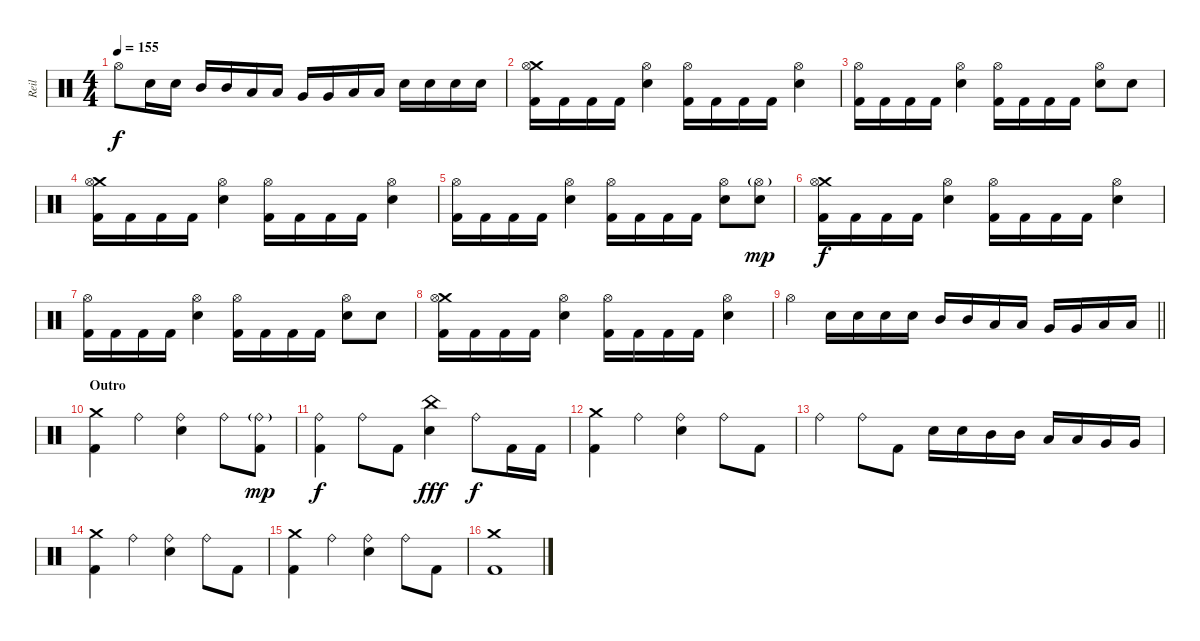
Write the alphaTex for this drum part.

\track ("Reil" "Reil") {instrument percussion}
\staff {score}
\articulation defaults
\ts (4 4)
\tempo 155
\clef neutral
\ks c "Hi-Hat (open)".8{dy f} "Electric Snare (hit)".16 "Electric Snare (hit)".16 "Mid Tom (hit)".16 "Mid Tom (hit)".16 "Low Tom (hit)".16 "Low Tom (hit)".16 "Very Low Tom (hit)".16 "Very Low Tom (hit)".16 "Low Floor Tom (hit)".16 "Low Floor Tom (hit)".16 "Electric Snare (hit)".16 "Electric Snare (hit)".16 "Electric Snare (hit)".16 "Electric Snare (hit)".16
|
("Crash medium (hit)" "Hi-Hat (open)" "Kick (hit) 2").16 "Kick (hit) 2".16 "Kick (hit) 2".16 "Kick (hit) 2".16 ("Hi-Hat (open)" "Electric Snare (hit)").4 ("Hi-Hat (open)" "Kick (hit) 2").16 "Kick (hit) 2".16 "Kick (hit) 2".16 "Kick (hit) 2".16 ("Hi-Hat (open)" "Electric Snare (hit)").4 |
("Hi-Hat (open)" "Kick (hit) 2").16 "Kick (hit) 2".16 "Kick (hit) 2".16 "Kick (hit) 2".16 ("Hi-Hat (open)" "Electric Snare (hit)").4 ("Hi-Hat (open)" "Kick (hit) 2").16 "Kick (hit) 2".16 "Kick (hit) 2".16 "Kick (hit) 2".16 ("Hi-Hat (open)" "Electric Snare (hit)").8 "Electric Snare (hit)".8 |
("Crash medium (hit)" "Hi-Hat (open)" "Kick (hit) 2").16 "Kick (hit) 2".16 "Kick (hit) 2".16 "Kick (hit) 2".16 ("Hi-Hat (open)" "Electric Snare (hit)").4 ("Hi-Hat (open)" "Kick (hit) 2").16 "Kick (hit) 2".16 "Kick (hit) 2".16 "Kick (hit) 2".16 ("Hi-Hat (open)" "Electric Snare (hit)").4 |
("Hi-Hat (open)" "Kick (hit) 2").16 "Kick (hit) 2".16 "Kick (hit) 2".16 "Kick (hit) 2".16 ("Hi-Hat (open)" "Electric Snare (hit)").4 ("Hi-Hat (open)" "Kick (hit) 2").16 "Kick (hit) 2".16 "Kick (hit) 2".16 "Kick (hit) 2".16 ("Hi-Hat (open)" "Electric Snare (hit)").8 ("Hi-Hat (open)"{g} "Electric Snare (hit)").8{dy mp} |
("Crash medium (hit)" "Hi-Hat (open)" "Kick (hit) 2").16{dy f} "Kick (hit) 2".16 "Kick (hit) 2".16 "Kick (hit) 2".16 ("Hi-Hat (open)" "Electric Snare (hit)").4 ("Hi-Hat (open)" "Kick (hit) 2").16 "Kick (hit) 2".16 "Kick (hit) 2".16 "Kick (hit) 2".16 ("Hi-Hat (open)" "Electric Snare (hit)").4 |
("Hi-Hat (open)" "Kick (hit) 2").16 "Kick (hit) 2".16 "Kick (hit) 2".16 "Kick (hit) 2".16 ("Hi-Hat (open)" "Electric Snare (hit)").4 ("Hi-Hat (open)" "Kick (hit) 2").16 "Kick (hit) 2".16 "Kick (hit) 2".16 "Kick (hit) 2".16 ("Hi-Hat (open)" "Electric Snare (hit)").8 "Electric Snare (hit)".8 |
("Crash medium (hit)" "Hi-Hat (open)" "Kick (hit) 2").16 "Kick (hit) 2".16 "Kick (hit) 2".16 "Kick (hit) 2".16 ("Hi-Hat (open)" "Electric Snare (hit)").4 ("Hi-Hat (open)" "Kick (hit) 2").16 "Kick (hit) 2".16 "Kick (hit) 2".16 "Kick (hit) 2".16 ("Hi-Hat (open)" "Electric Snare (hit)").4 |
\barLineRight lightlight "Hi-Hat (open)".4 "Electric Snare (hit)".16 "Electric Snare (hit)".16 "Electric Snare (hit)".16 "Electric Snare (hit)".16 "Mid Tom (hit)".16 "Mid Tom (hit)".16 "Low Tom (hit)".16 "Low Tom (hit)".16 "Very Low Tom (hit)".16 "Very Low Tom (hit)".16 "Low Floor Tom (hit)".16 "Low Floor Tom (hit)".16
|
\section ("" "Outro")
("Crash medium (hit)" "Kick (hit) 2").4 "Ride (bell)".4 ("Ride (bell)" "Electric Snare (hit)").4 "Ride (bell)".8 ("Ride (bell)"{g} "Kick (hit) 2").8{dy mp} |
("Ride (bell)" "Kick (hit) 2").4{dy f} "Ride (bell)".8 "Kick (hit) 2".8 ("China (hit)" "Electric Snare (hit)").4{dy fff} "Ride (bell)".8{dy f} "Kick (hit) 2".16 "Kick (hit) 2".16 |
("Crash medium (hit)" "Kick (hit) 2").4 "Ride (bell)".4 ("Ride (bell)" "Electric Snare (hit)").4 "Ride (bell)".8 "Kick (hit) 2".8 |
"Ride (bell)".4 "Ride (bell)".8 "Kick (hit) 2".8 "Electric Snare (hit)".16 "Electric Snare (hit)".16 "Mid Tom (hit)".16 "Mid Tom (hit)".16 "Low Tom (hit)".16 "Low Tom (hit)".16 "Very Low Tom (hit)".16 "Very Low Tom (hit)".16 |
("Crash medium (hit)" "Kick (hit) 2").4 "Ride (bell)".4 ("Ride (bell)" "Electric Snare (hit)").4 "Ride (bell)".8 "Kick (hit) 2".8 |
("Crash medium (hit)" "Kick (hit) 2").4 "Ride (bell)".4 ("Ride (bell)" "Electric Snare (hit)").4 "Ride (bell)".8 "Kick (hit) 2".8 |
("Crash medium (hit)" "Kick (hit) 2").1
